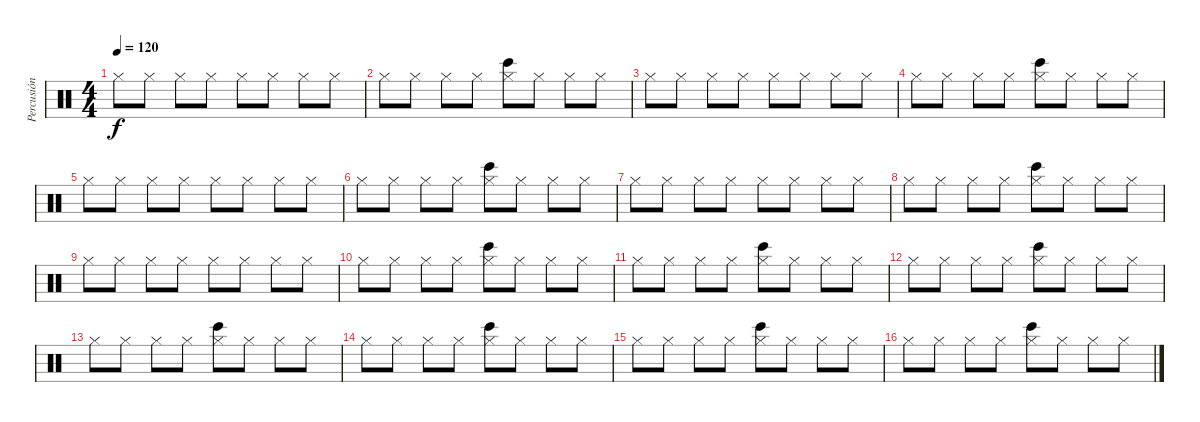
\track ("Percusión" "Percusión") {instrument percussion}
\staff {score}
\articulation defaults
\ts (4 4)
\tempo 120
\clef neutral
\ks c "Hi-Hat (closed)".8{dy f} "Hi-Hat (closed)".8 "Hi-Hat (closed)".8 "Hi-Hat (closed)".8 "Hi-Hat (closed)".8 "Hi-Hat (closed)".8 "Hi-Hat (closed)".8 "Hi-Hat (closed)".8
|
"Hi-Hat (closed)".8 "Hi-Hat (closed)".8 "Hi-Hat (closed)".8 "Hi-Hat (closed)".8 ("Hi-Hat (closed)" "Bongo High (hit)").8 "Hi-Hat (closed)".8 "Hi-Hat (closed)".8 "Hi-Hat (closed)".8 |
"Hi-Hat (closed)".8 "Hi-Hat (closed)".8 "Hi-Hat (closed)".8 "Hi-Hat (closed)".8 "Hi-Hat (closed)".8 "Hi-Hat (closed)".8 "Hi-Hat (closed)".8 "Hi-Hat (closed)".8 |
"Hi-Hat (closed)".8 "Hi-Hat (closed)".8 "Hi-Hat (closed)".8 "Hi-Hat (closed)".8 ("Hi-Hat (closed)" "Bongo High (hit)").8 "Hi-Hat (closed)".8 "Hi-Hat (closed)".8 "Hi-Hat (closed)".8 |
"Hi-Hat (closed)".8 "Hi-Hat (closed)".8 "Hi-Hat (closed)".8 "Hi-Hat (closed)".8 "Hi-Hat (closed)".8 "Hi-Hat (closed)".8 "Hi-Hat (closed)".8 "Hi-Hat (closed)".8 |
"Hi-Hat (closed)".8 "Hi-Hat (closed)".8 "Hi-Hat (closed)".8 "Hi-Hat (closed)".8 ("Hi-Hat (closed)" "Bongo High (hit)").8 "Hi-Hat (closed)".8 "Hi-Hat (closed)".8 "Hi-Hat (closed)".8 |
"Hi-Hat (closed)".8 "Hi-Hat (closed)".8 "Hi-Hat (closed)".8 "Hi-Hat (closed)".8 "Hi-Hat (closed)".8 "Hi-Hat (closed)".8 "Hi-Hat (closed)".8 "Hi-Hat (closed)".8 |
"Hi-Hat (closed)".8 "Hi-Hat (closed)".8 "Hi-Hat (closed)".8 "Hi-Hat (closed)".8 ("Hi-Hat (closed)" "Bongo High (hit)").8 "Hi-Hat (closed)".8 "Hi-Hat (closed)".8 "Hi-Hat (closed)".8 |
"Hi-Hat (closed)".8 "Hi-Hat (closed)".8 "Hi-Hat (closed)".8 "Hi-Hat (closed)".8 "Hi-Hat (closed)".8 "Hi-Hat (closed)".8 "Hi-Hat (closed)".8 "Hi-Hat (closed)".8 |
"Hi-Hat (closed)".8 "Hi-Hat (closed)".8 "Hi-Hat (closed)".8 "Hi-Hat (closed)".8 ("Hi-Hat (closed)" "Bongo High (hit)").8 "Hi-Hat (closed)".8 "Hi-Hat (closed)".8 "Hi-Hat (closed)".8 |
"Hi-Hat (closed)".8 "Hi-Hat (closed)".8 "Hi-Hat (closed)".8 "Hi-Hat (closed)".8 ("Hi-Hat (closed)" "Bongo High (hit)").8 "Hi-Hat (closed)".8 "Hi-Hat (closed)".8 "Hi-Hat (closed)".8 |
"Hi-Hat (closed)".8 "Hi-Hat (closed)".8 "Hi-Hat (closed)".8 "Hi-Hat (closed)".8 ("Hi-Hat (closed)" "Bongo High (hit)").8 "Hi-Hat (closed)".8 "Hi-Hat (closed)".8 "Hi-Hat (closed)".8 |
"Hi-Hat (closed)".8 "Hi-Hat (closed)".8 "Hi-Hat (closed)".8 "Hi-Hat (closed)".8 ("Hi-Hat (closed)" "Bongo High (hit)").8 "Hi-Hat (closed)".8 "Hi-Hat (closed)".8 "Hi-Hat (closed)".8 |
"Hi-Hat (closed)".8 "Hi-Hat (closed)".8 "Hi-Hat (closed)".8 "Hi-Hat (closed)".8 ("Hi-Hat (closed)" "Bongo High (hit)").8 "Hi-Hat (closed)".8 "Hi-Hat (closed)".8 "Hi-Hat (closed)".8 |
"Hi-Hat (closed)".8 "Hi-Hat (closed)".8 "Hi-Hat (closed)".8 "Hi-Hat (closed)".8 ("Hi-Hat (closed)" "Bongo High (hit)").8 "Hi-Hat (closed)".8 "Hi-Hat (closed)".8 "Hi-Hat (closed)".8 |
"Hi-Hat (closed)".8 "Hi-Hat (closed)".8 "Hi-Hat (closed)".8 "Hi-Hat (closed)".8 ("Hi-Hat (closed)" "Bongo High (hit)").8 "Hi-Hat (closed)".8 "Hi-Hat (closed)".8 "Hi-Hat (closed)".8
